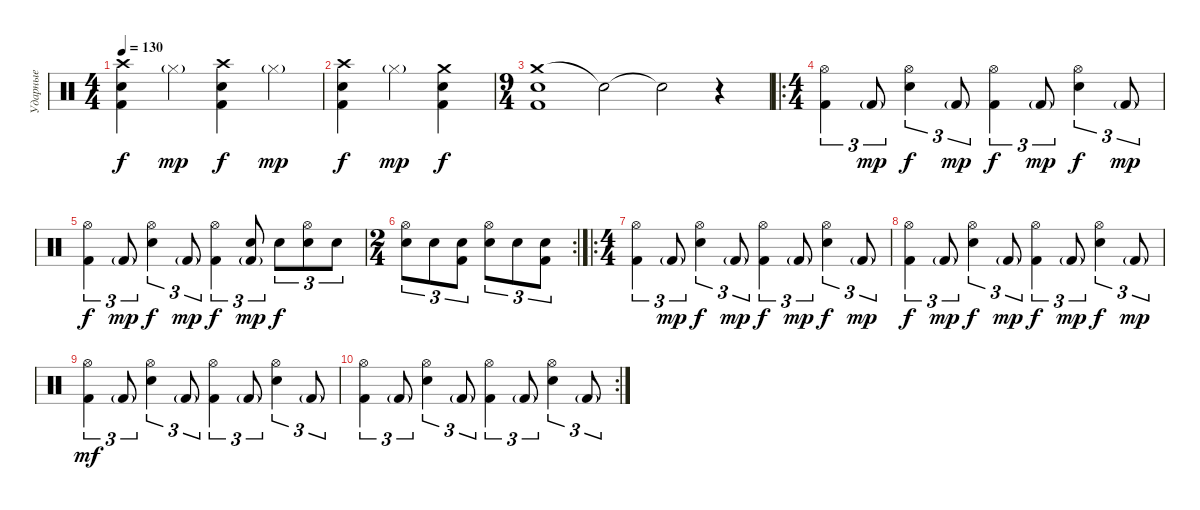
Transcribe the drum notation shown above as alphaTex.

\track ("Ударные" "Ударные") {instrument percussion}
\staff {score}
\articulation defaults
\ts (4 4)
\tempo 130
\clef neutral
\ks c
("Crash high (hit)" "Kick (hit) 2" "Snare (hit) 2").4{dy f} "Hi-Hat (closed)"{g}.4{dy mp} ("Crash high (hit)" "Kick (hit) 2" "Snare (hit) 2").4{dy f} "Hi-Hat (closed)"{g}.4{dy mp} |
("Crash high (hit)" "Kick (hit) 2" "Snare (hit) 2").4{dy f} "Hi-Hat (closed)"{g}.4{dy mp} ("Crash medium (hit)" "Kick (hit) 2" "Snare (hit) 2").4{dy f} |
\ts (9 4)
("Crash medium (hit)" "Kick (hit) 2" "Snare (hit) 2").1 "Snare (hit)"{t}.2 "Snare (hit)"{t}.2 r.4 |
\ro
\ts (4 4)
("Hi-Hat (open)" "Kick (hit) 2").4{tu (3 2)} "Kick (hit) 2"{g}.8{tu (3 2) dy mp} ("Hi-Hat (open)" "Snare (hit) 2").4{tu (3 2) dy f} "Kick (hit) 2"{g}.8{tu (3 2) dy mp} ("Hi-Hat (open)" "Kick (hit) 2").4{tu (3 2) dy f} "Kick (hit) 2"{g}.8{tu (3 2) dy mp} ("Hi-Hat (open)" "Snare (hit) 2").4{tu (3 2) dy f} "Kick (hit) 2"{g}.8{tu (3 2) dy mp} |
("Hi-Hat (open)" "Kick (hit) 2").4{tu (3 2) dy f} "Kick (hit) 2"{g}.8{tu (3 2) dy mp} ("Hi-Hat (open)" "Snare (hit) 2").4{tu (3 2) dy f} "Kick (hit) 2"{g}.8{tu (3 2) dy mp} ("Hi-Hat (open)" "Kick (hit) 2").4{tu (3 2) dy f} ("Snare (hit) 2" "Kick (hit) 2"{g}).8{tu (3 2) dy mp} "Snare (hit) 2".8{tu (3 2) dy f} ("Snare (hit) 2" "Hi-Hat (open)").8{tu (3 2)} "Snare (hit) 2".8{tu (3 2)} |
\rc 2
\ts (2 4)
("Snare (hit) 2" "Hi-Hat (open)").8{tu (3 2)} "Snare (hit) 2".8{tu (3 2)} ("Snare (hit) 2" "Kick (hit) 2").8{tu (3 2)} ("Snare (hit) 2" "Hi-Hat (open)").8{tu (3 2)} "Snare (hit) 2".8{tu (3 2)} ("Snare (hit) 2" "Kick (hit) 2").8{tu (3 2)} |
\ro
\ts (4 4)
("Hi-Hat (open)" "Kick (hit) 2").4{tu (3 2) volume 11} "Kick (hit) 2"{g}.8{tu (3 2) dy mp} ("Hi-Hat (open)" "Snare (hit) 2").4{tu (3 2) dy f} "Kick (hit) 2"{g}.8{tu (3 2) dy mp} ("Hi-Hat (open)" "Kick (hit) 2").4{tu (3 2) dy f} "Kick (hit) 2"{g}.8{tu (3 2) dy mp} ("Hi-Hat (open)" "Snare (hit) 2").4{tu (3 2) dy f} "Kick (hit) 2"{g}.8{tu (3 2) dy mp} |
("Hi-Hat (open)" "Kick (hit) 2").4{tu (3 2) dy f} "Kick (hit) 2"{g}.8{tu (3 2) dy mp} ("Hi-Hat (open)" "Snare (hit) 2").4{tu (3 2) dy f} "Kick (hit) 2"{g}.8{tu (3 2) dy mp} ("Hi-Hat (open)" "Kick (hit) 2").4{tu (3 2) dy f} "Kick (hit) 2"{g}.8{tu (3 2) dy mp} ("Hi-Hat (open)" "Snare (hit) 2").4{tu (3 2) dy f} "Kick (hit) 2"{g}.8{tu (3 2) dy mp} |
("Hi-Hat (open)" "Kick (hit) 2").4{tu (3 2) dy mf volume 13} "Kick (hit) 2"{g}.8{tu (3 2)} ("Hi-Hat (open)" "Snare (hit) 2").4{tu (3 2)} "Kick (hit) 2"{g}.8{tu (3 2)} ("Hi-Hat (open)" "Kick (hit) 2").4{tu (3 2)} "Kick (hit) 2"{g}.8{tu (3 2)} ("Hi-Hat (open)" "Snare (hit) 2").4{tu (3 2)} "Kick (hit) 2"{g}.8{tu (3 2)} |
\rc 2
("Hi-Hat (open)" "Kick (hit) 2").4{tu (3 2)} "Kick (hit) 2"{g}.8{tu (3 2)} ("Hi-Hat (open)" "Snare (hit) 2").4{tu (3 2)} "Kick (hit) 2"{g}.8{tu (3 2)} ("Hi-Hat (open)" "Kick (hit) 2").4{tu (3 2)} "Kick (hit) 2"{g}.8{tu (3 2)} ("Hi-Hat (open)" "Snare (hit) 2").4{tu (3 2)} "Kick (hit) 2"{g}.8{tu (3 2)}
